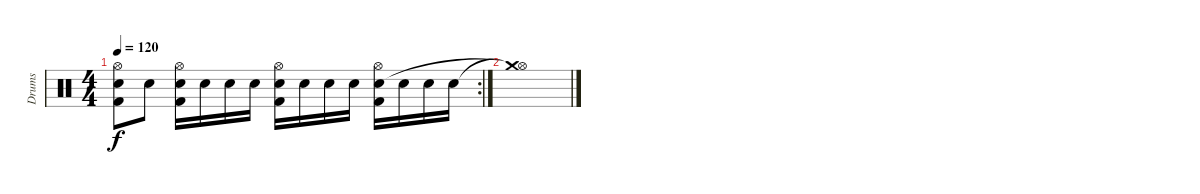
\track ("Drums" "Drums") {instrument percussion}
\staff {score}
\articulation defaults
\rc 2
\ts (4 4)
\tempo 120
\clef neutral
\ks c
("Hi-Hat (open)" "Snare (hit) 2" "Kick (hit) 2").8{dy f} "Snare (hit) 2".8 ("Hi-Hat (open)" "Snare (hit) 2" "Kick (hit) 2").16 "Snare (hit) 2".16 "Snare (hit) 2".16 "Snare (hit) 2".16 ("Hi-Hat (open)" "Snare (hit) 2" "Kick (hit) 2").16 "Snare (hit) 2".16 "Snare (hit) 2".16 "Snare (hit) 2".16 ("Hi-Hat (open)" "Snare (hit) 2" "Kick (hit) 2").16 "Snare (hit) 2".16 "Snare (hit) 2".16 "Snare (hit) 2".16 |
("Hi-Hat (open)"{t} "Crash medium (hit)"{t}).1
